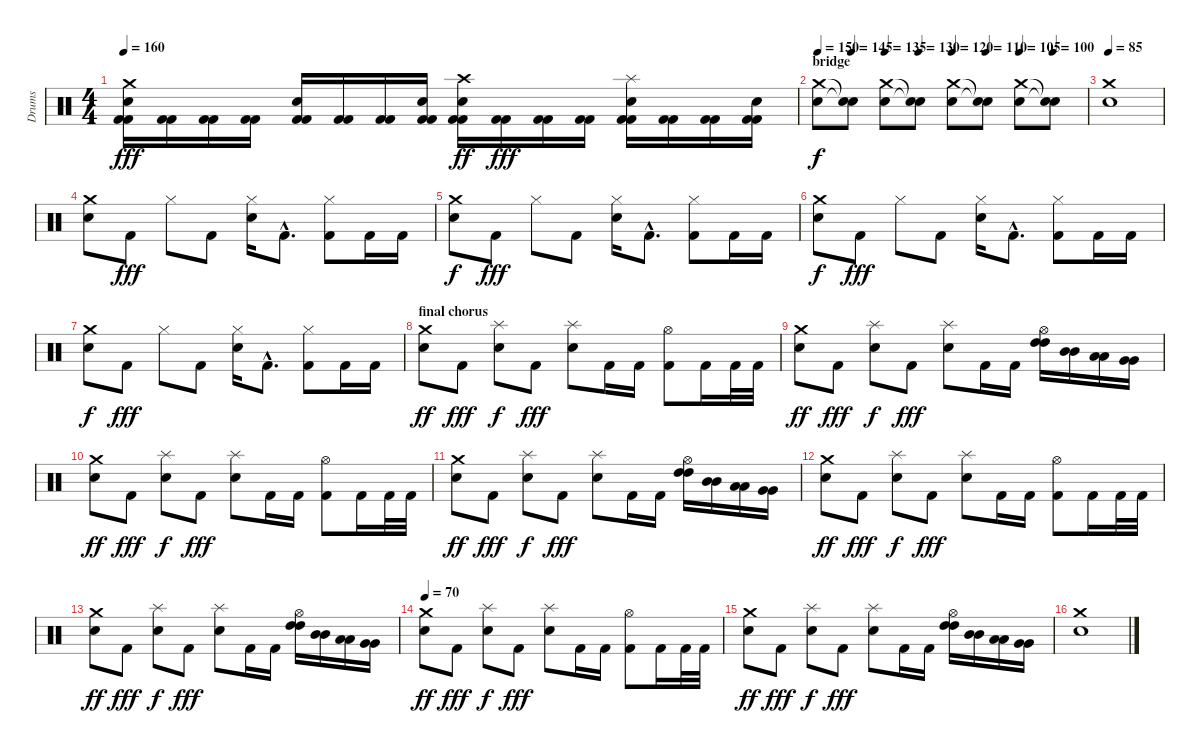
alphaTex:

\track ("Drums" "Drums") {instrument percussion}
\staff {score}
\articulation defaults
\ts (4 4)
\tempo 160
\clef neutral
\ks c
("Kick (hit) 2" "Kick (hit) 2" "Electric Snare (hit)" "Crash medium (hit)").16{dy fff} ("Kick (hit) 2" "Kick (hit) 2").16 ("Kick (hit) 2" "Kick (hit) 2").16 ("Kick (hit) 2" "Kick (hit) 2").16 ("Kick (hit) 2" "Kick (hit) 2" "Electric Snare (hit)").16 ("Kick (hit) 2" "Kick (hit) 2").16 ("Kick (hit) 2" "Kick (hit) 2").16 ("Kick (hit) 2" "Kick (hit) 2" "Electric Snare (hit)").16 ("Kick (hit) 2" "Kick (hit) 2" "Electric Snare (hit)" "Crash high (hit)").16{dy ff} ("Kick (hit) 2" "Kick (hit) 2").16{dy fff} ("Kick (hit) 2" "Kick (hit) 2").16 ("Kick (hit) 2" "Kick (hit) 2").16 ("Kick (hit) 2" "Kick (hit) 2" "Electric Snare (hit)" "Splash (hit)").16 ("Kick (hit) 2" "Kick (hit) 2").16 ("Kick (hit) 2" "Kick (hit) 2").16 ("Kick (hit) 2" "Kick (hit) 2" "Electric Snare (hit)").16 |
\section ("" "bridge")
\tempo 150
\tempo (145 0.125)
\tempo (135 0.25)
\tempo (130 0.375)
\tempo (120 0.5)
\tempo (110 0.625)
\tempo (105 0.75)
\tempo (100 0.875)
("Electric Snare (hit)" "Crash medium (hit)").8{dy f} ("Snare (hit)"{t} "Snare (hit)"{t}).8 ("Electric Snare (hit)" "Crash medium (hit)").8 ("Snare (hit)"{t} "Snare (hit)"{t}).8 ("Electric Snare (hit)" "Crash medium (hit)").8 ("Snare (hit)"{t} "Snare (hit)"{t}).8 ("Electric Snare (hit)" "Crash medium (hit)").8 ("Snare (hit)"{t} "Snare (hit)"{t}).8 |
\tempo 85
("Electric Snare (hit)" "Crash medium (hit)").1 |
("Crash medium (hit)" "Electric Snare (hit)").8 "Kick (hit) 2".8{dy fff} "Hi-Hat (closed)".8 "Kick (hit) 2".8 ("Hi-Hat (closed)" "Electric Snare (hit)").16 "Kick (hit) 2"{hac}.8{d} ("Hi-Hat (closed)" "Kick (hit) 2").8 "Kick (hit) 2".16 "Kick (hit) 2".16 |
("Crash medium (hit)" "Electric Snare (hit)").8{dy f} "Kick (hit) 2".8{dy fff} "Hi-Hat (closed)".8 "Kick (hit) 2".8 ("Hi-Hat (closed)" "Electric Snare (hit)").16 "Kick (hit) 2"{hac}.8{d} ("Hi-Hat (closed)" "Kick (hit) 2").8 "Kick (hit) 2".16 "Kick (hit) 2".16 |
("Crash medium (hit)" "Electric Snare (hit)").8{dy f} "Kick (hit) 2".8{dy fff} "Hi-Hat (closed)".8 "Kick (hit) 2".8 ("Hi-Hat (closed)" "Electric Snare (hit)").16 "Kick (hit) 2"{hac}.8{d} ("Hi-Hat (closed)" "Kick (hit) 2").8 "Kick (hit) 2".16 "Kick (hit) 2".16 |
("Crash medium (hit)" "Electric Snare (hit)").8{dy f} "Kick (hit) 2".8{dy fff} "Hi-Hat (closed)".8 "Kick (hit) 2".8 ("Hi-Hat (closed)" "Electric Snare (hit)").16 "Kick (hit) 2"{hac}.8{d} ("Hi-Hat (closed)" "Kick (hit) 2").8 "Kick (hit) 2".16 "Kick (hit) 2".16 |
\section ("" "final chorus")
("Electric Snare (hit)" "Crash medium (hit)").8{dy ff} "Kick (hit) 2".8{dy fff} ("Splash (hit)" "Snare (hit) 2").8{dy f} "Kick (hit) 2".8{dy fff} ("Splash (hit)" "Electric Snare (hit)").8 "Kick (hit) 2".16 "Kick (hit) 2".16 ("Hi-Hat (open)" "Kick (hit) 2").8 "Kick (hit) 2".16 "Kick (hit) 2".32 "Kick (hit) 2".32 |
("Electric Snare (hit)" "Crash medium (hit)").8{dy ff} "Kick (hit) 2".8{dy fff} ("Splash (hit)" "Snare (hit) 2").8{dy f} "Kick (hit) 2".8{dy fff} ("Splash (hit)" "Electric Snare (hit)").8 "Kick (hit) 2".16 "Kick (hit) 2".16 ("Hi-Hat (open)" "High Tom (hit)" "High Tom (hit)").16 ("Mid Tom (hit)" "Mid Tom (hit)").16 ("Low Tom (hit)" "Low Tom (hit)").16 ("Very Low Tom (hit)" "Very Low Tom (hit)").16 |
("Electric Snare (hit)" "Crash medium (hit)").8{dy ff} "Kick (hit) 2".8{dy fff} ("Splash (hit)" "Snare (hit) 2").8{dy f} "Kick (hit) 2".8{dy fff} ("Splash (hit)" "Electric Snare (hit)").8 "Kick (hit) 2".16 "Kick (hit) 2".16 ("Hi-Hat (open)" "Kick (hit) 2").8 "Kick (hit) 2".16 "Kick (hit) 2".32 "Kick (hit) 2".32 |
("Electric Snare (hit)" "Crash medium (hit)").8{dy ff} "Kick (hit) 2".8{dy fff} ("Splash (hit)" "Snare (hit) 2").8{dy f} "Kick (hit) 2".8{dy fff} ("Splash (hit)" "Electric Snare (hit)").8 "Kick (hit) 2".16 "Kick (hit) 2".16 ("Hi-Hat (open)" "High Tom (hit)" "High Tom (hit)").16 ("Mid Tom (hit)" "Mid Tom (hit)").16 ("Low Tom (hit)" "Low Tom (hit)").16 ("Very Low Tom (hit)" "Very Low Tom (hit)").16 |
("Electric Snare (hit)" "Crash medium (hit)").8{dy ff} "Kick (hit) 2".8{dy fff} ("Splash (hit)" "Snare (hit) 2").8{dy f} "Kick (hit) 2".8{dy fff} ("Splash (hit)" "Electric Snare (hit)").8 "Kick (hit) 2".16 "Kick (hit) 2".16 ("Hi-Hat (open)" "Kick (hit) 2").8 "Kick (hit) 2".16 "Kick (hit) 2".32 "Kick (hit) 2".32 |
("Electric Snare (hit)" "Crash medium (hit)").8{dy ff} "Kick (hit) 2".8{dy fff} ("Splash (hit)" "Snare (hit) 2").8{dy f} "Kick (hit) 2".8{dy fff} ("Splash (hit)" "Electric Snare (hit)").8 "Kick (hit) 2".16 "Kick (hit) 2".16 ("Hi-Hat (open)" "High Tom (hit)" "High Tom (hit)").16 ("Mid Tom (hit)" "Mid Tom (hit)").16 ("Low Tom (hit)" "Low Tom (hit)").16 ("Very Low Tom (hit)" "Very Low Tom (hit)").16 |
\tempo 70
("Electric Snare (hit)" "Crash medium (hit)").8{dy ff} "Kick (hit) 2".8{dy fff} ("Splash (hit)" "Snare (hit) 2").8{dy f} "Kick (hit) 2".8{dy fff} ("Splash (hit)" "Electric Snare (hit)").8 "Kick (hit) 2".16 "Kick (hit) 2".16 ("Hi-Hat (open)" "Kick (hit) 2").8 "Kick (hit) 2".16 "Kick (hit) 2".32 "Kick (hit) 2".32 |
("Electric Snare (hit)" "Crash medium (hit)").8{dy ff} "Kick (hit) 2".8{dy fff} ("Splash (hit)" "Snare (hit) 2").8{dy f} "Kick (hit) 2".8{dy fff} ("Splash (hit)" "Electric Snare (hit)").8 "Kick (hit) 2".16 "Kick (hit) 2".16 ("Hi-Hat (open)" "High Tom (hit)" "High Tom (hit)").16 ("Mid Tom (hit)" "Mid Tom (hit)").16 ("Low Tom (hit)" "Low Tom (hit)").16 ("Very Low Tom (hit)" "Very Low Tom (hit)").16 |
("Electric Snare (hit)" "Crash medium (hit)").1
